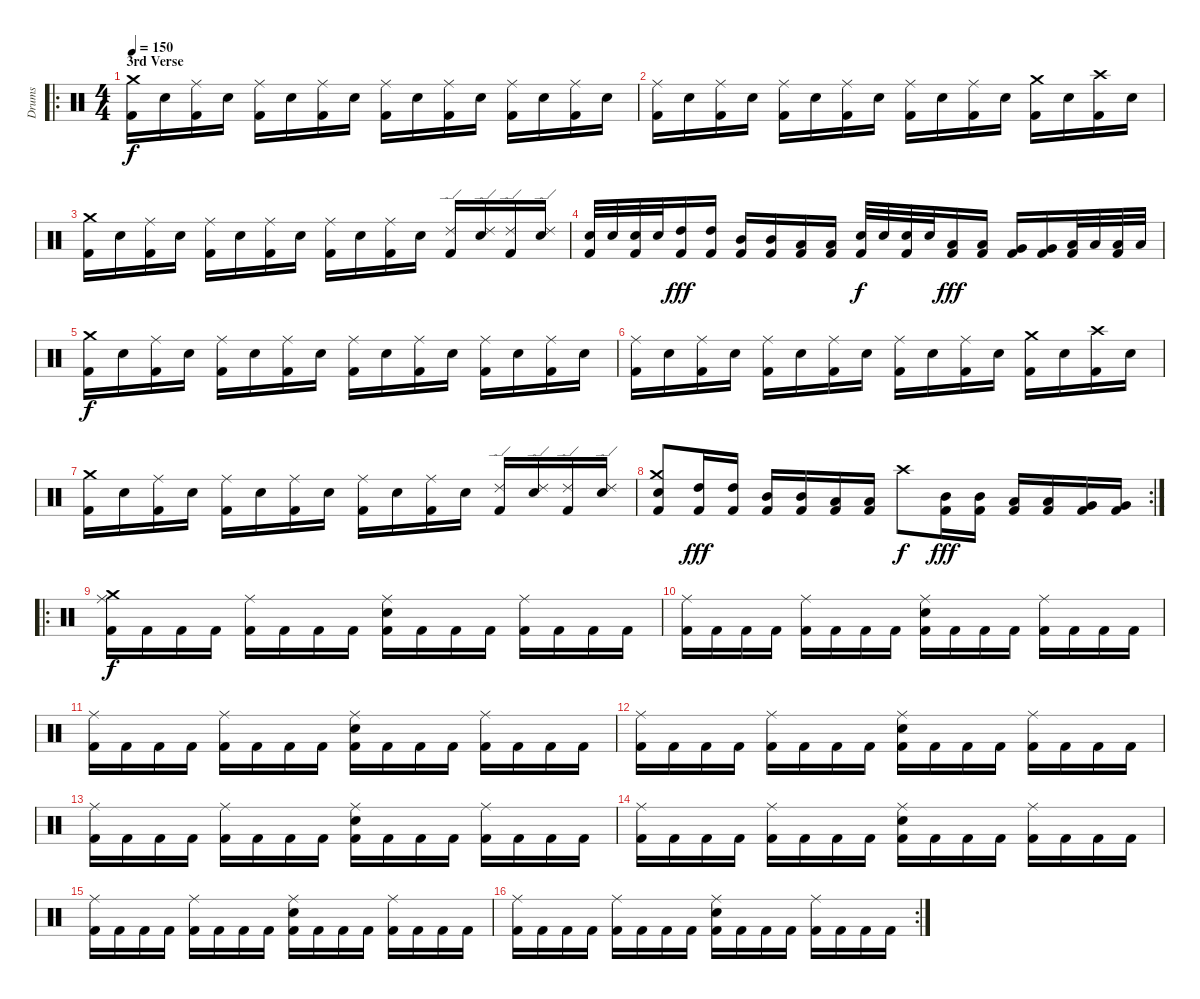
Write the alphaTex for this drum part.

\track ("Drums" "Drums") {instrument percussion}
\staff {score}
\articulation defaults
\ro
\ts (4 4)
\section ("" "3rd Verse")
\tempo 150
\clef neutral
\ks c
("Kick (hit) 2" "Crash medium (hit)").16{dy f} "Electric Snare (hit)".16 ("Kick (hit) 2" "Ride (middle)").16 "Electric Snare (hit)".16 ("Kick (hit) 2" "Ride (middle)").16 "Electric Snare (hit)".16 ("Kick (hit) 2" "Ride (middle)").16 "Electric Snare (hit)".16 ("Kick (hit) 2" "Ride (middle)").16 "Electric Snare (hit)".16 ("Kick (hit) 2" "Ride (middle)").16 "Electric Snare (hit)".16 ("Kick (hit) 2" "Ride (middle)").16 "Electric Snare (hit)".16 ("Kick (hit) 2" "Ride (middle)").16 "Electric Snare (hit)".16 |
("Kick (hit) 2" "Ride (middle)").16 "Electric Snare (hit)".16 ("Kick (hit) 2" "Ride (middle)").16 "Electric Snare (hit)".16 ("Kick (hit) 2" "Ride (middle)").16 "Electric Snare (hit)".16 ("Kick (hit) 2" "Ride (middle)").16 "Electric Snare (hit)".16 ("Kick (hit) 2" "Ride (middle)").16 "Electric Snare (hit)".16 ("Kick (hit) 2" "Ride (middle)").16 "Electric Snare (hit)".16 ("Kick (hit) 2" "Crash medium (hit)").16 "Electric Snare (hit)".16 ("Kick (hit) 2" "Crash high (hit)").16 "Electric Snare (hit)".16 |
("Kick (hit) 2" "Crash medium (hit)").16 "Electric Snare (hit)".16 ("Kick (hit) 2" "Ride (middle)").16 "Electric Snare (hit)".16 ("Kick (hit) 2" "Ride (middle)").16 "Electric Snare (hit)".16 ("Kick (hit) 2" "Ride (middle)").16 "Electric Snare (hit)".16 ("Kick (hit) 2" "Ride (middle)").16 "Electric Snare (hit)".16 ("Kick (hit) 2" "Ride (middle)").16 "Electric Snare (hit)".16 ("Kick (hit) 2" "Ride (edge) 2").16 ("Electric Snare (hit)" "Ride (edge) 2").16 ("Kick (hit) 2" "Ride (edge) 2").16 ("Electric Snare (hit)" "Ride (edge) 2").16 |
("Kick (hit) 2" "Electric Snare (hit)").32 "Electric Snare (hit)".32 ("Kick (hit) 2" "Electric Snare (hit)").32 "Electric Snare (hit)".32 ("Kick (hit) 2" "High Tom (hit)").16{dy fff} ("Kick (hit) 2" "High Tom (hit)").16 ("Kick (hit) 2" "Mid Tom (hit)").16 ("Kick (hit) 2" "Mid Tom (hit)").16 ("Kick (hit) 2" "Low Tom (hit)").16 ("Kick (hit) 2" "Low Tom (hit)").16 ("Kick (hit) 2" "Electric Snare (hit)").32{dy f} "Electric Snare (hit)".32 ("Kick (hit) 2" "Electric Snare (hit)").32 "Electric Snare (hit)".32 ("Kick (hit) 2" "Low Tom (hit)").16{dy fff} ("Kick (hit) 2" "Low Tom (hit)").16 ("Kick (hit) 2" "Very Low Tom (hit)").16 ("Kick (hit) 2" "Very Low Tom (hit)").16 ("Kick (hit) 2" "Low Floor Tom (hit)").32 "Low Floor Tom (hit)".32 ("Kick (hit) 2" "Low Floor Tom (hit)").32 "Low Floor Tom (hit)".32 |
("Kick (hit) 2" "Crash medium (hit)").16{dy f} "Electric Snare (hit)".16 ("Kick (hit) 2" "Ride (middle)").16 "Electric Snare (hit)".16 ("Kick (hit) 2" "Ride (middle)").16 "Electric Snare (hit)".16 ("Kick (hit) 2" "Ride (middle)").16 "Electric Snare (hit)".16 ("Kick (hit) 2" "Ride (middle)").16 "Electric Snare (hit)".16 ("Kick (hit) 2" "Ride (middle)").16 "Electric Snare (hit)".16 ("Kick (hit) 2" "Ride (middle)").16 "Electric Snare (hit)".16 ("Kick (hit) 2" "Ride (middle)").16 "Electric Snare (hit)".16 |
("Kick (hit) 2" "Ride (middle)").16 "Electric Snare (hit)".16 ("Kick (hit) 2" "Ride (middle)").16 "Electric Snare (hit)".16 ("Kick (hit) 2" "Ride (middle)").16 "Electric Snare (hit)".16 ("Kick (hit) 2" "Ride (middle)").16 "Electric Snare (hit)".16 ("Kick (hit) 2" "Ride (middle)").16 "Electric Snare (hit)".16 ("Kick (hit) 2" "Ride (middle)").16 "Electric Snare (hit)".16 ("Kick (hit) 2" "Crash medium (hit)").16 "Electric Snare (hit)".16 ("Kick (hit) 2" "Crash high (hit)").16 "Electric Snare (hit)".16 |
("Kick (hit) 2" "Crash medium (hit)").16 "Electric Snare (hit)".16 ("Kick (hit) 2" "Ride (middle)").16 "Electric Snare (hit)".16 ("Kick (hit) 2" "Ride (middle)").16 "Electric Snare (hit)".16 ("Kick (hit) 2" "Ride (middle)").16 "Electric Snare (hit)".16 ("Kick (hit) 2" "Ride (middle)").16 "Electric Snare (hit)".16 ("Kick (hit) 2" "Ride (middle)").16 "Electric Snare (hit)".16 ("Kick (hit) 2" "Ride (edge) 2").16 ("Electric Snare (hit)" "Ride (edge) 2").16 ("Kick (hit) 2" "Ride (edge) 2").16 ("Electric Snare (hit)" "Ride (edge) 2").16 |
\rc 2
("Kick (hit) 2" "Electric Snare (hit)" "Crash medium (hit)").8 ("Kick (hit) 2" "High Tom (hit)").16{dy fff} ("Kick (hit) 2" "High Tom (hit)").16 ("Kick (hit) 2" "Mid Tom (hit)").16 ("Kick (hit) 2" "Mid Tom (hit)").16 ("Kick (hit) 2" "Low Tom (hit)").16 ("Kick (hit) 2" "Low Tom (hit)").16 "Crash high (hit)".8{dy f} ("Kick (hit) 2" "Mid Tom (hit)").16{dy fff} ("Kick (hit) 2" "Mid Tom (hit)").16 ("Kick (hit) 2" "Low Tom (hit)").16 ("Kick (hit) 2" "Low Tom (hit)").16 ("Kick (hit) 2" "Very Low Tom (hit)").16 ("Kick (hit) 2" "Very Low Tom (hit)").16 |
\ro
("Kick (hit) 2" "Ride (middle)" "Crash medium (hit)").16{dy f} "Kick (hit) 2".16 "Kick (hit) 2".16 "Kick (hit) 2".16 ("Kick (hit) 2" "Ride (middle)").16 "Kick (hit) 2".16 "Kick (hit) 2".16 "Kick (hit) 2".16 ("Kick (hit) 2" "Electric Snare (hit)" "Ride (middle)").16 "Kick (hit) 2".16 "Kick (hit) 2".16 "Kick (hit) 2".16 ("Kick (hit) 2" "Ride (middle)").16 "Kick (hit) 2".16 "Kick (hit) 2".16 "Kick (hit) 2".16 |
("Kick (hit) 2" "Ride (middle)").16 "Kick (hit) 2".16 "Kick (hit) 2".16 "Kick (hit) 2".16 ("Kick (hit) 2" "Ride (middle)").16 "Kick (hit) 2".16 "Kick (hit) 2".16 "Kick (hit) 2".16 ("Kick (hit) 2" "Electric Snare (hit)" "Ride (middle)").16 "Kick (hit) 2".16 "Kick (hit) 2".16 "Kick (hit) 2".16 ("Kick (hit) 2" "Ride (middle)").16 "Kick (hit) 2".16 "Kick (hit) 2".16 "Kick (hit) 2".16 |
("Kick (hit) 2" "Ride (middle)").16 "Kick (hit) 2".16 "Kick (hit) 2".16 "Kick (hit) 2".16 ("Kick (hit) 2" "Ride (middle)").16 "Kick (hit) 2".16 "Kick (hit) 2".16 "Kick (hit) 2".16 ("Kick (hit) 2" "Electric Snare (hit)" "Ride (middle)").16 "Kick (hit) 2".16 "Kick (hit) 2".16 "Kick (hit) 2".16 ("Kick (hit) 2" "Ride (middle)").16 "Kick (hit) 2".16 "Kick (hit) 2".16 "Kick (hit) 2".16 |
("Kick (hit) 2" "Ride (middle)").16 "Kick (hit) 2".16 "Kick (hit) 2".16 "Kick (hit) 2".16 ("Kick (hit) 2" "Ride (middle)").16 "Kick (hit) 2".16 "Kick (hit) 2".16 "Kick (hit) 2".16 ("Kick (hit) 2" "Electric Snare (hit)" "Ride (middle)").16 "Kick (hit) 2".16 "Kick (hit) 2".16 "Kick (hit) 2".16 ("Kick (hit) 2" "Ride (middle)").16 "Kick (hit) 2".16 "Kick (hit) 2".16 "Kick (hit) 2".16 |
("Kick (hit) 2" "Ride (middle)").16 "Kick (hit) 2".16 "Kick (hit) 2".16 "Kick (hit) 2".16 ("Kick (hit) 2" "Ride (middle)").16 "Kick (hit) 2".16 "Kick (hit) 2".16 "Kick (hit) 2".16 ("Kick (hit) 2" "Electric Snare (hit)" "Ride (middle)").16 "Kick (hit) 2".16 "Kick (hit) 2".16 "Kick (hit) 2".16 ("Kick (hit) 2" "Ride (middle)").16 "Kick (hit) 2".16 "Kick (hit) 2".16 "Kick (hit) 2".16 |
("Kick (hit) 2" "Ride (middle)").16 "Kick (hit) 2".16 "Kick (hit) 2".16 "Kick (hit) 2".16 ("Kick (hit) 2" "Ride (middle)").16 "Kick (hit) 2".16 "Kick (hit) 2".16 "Kick (hit) 2".16 ("Kick (hit) 2" "Electric Snare (hit)" "Ride (middle)").16 "Kick (hit) 2".16 "Kick (hit) 2".16 "Kick (hit) 2".16 ("Kick (hit) 2" "Ride (middle)").16 "Kick (hit) 2".16 "Kick (hit) 2".16 "Kick (hit) 2".16 |
("Kick (hit) 2" "Ride (middle)").16 "Kick (hit) 2".16 "Kick (hit) 2".16 "Kick (hit) 2".16 ("Kick (hit) 2" "Ride (middle)").16 "Kick (hit) 2".16 "Kick (hit) 2".16 "Kick (hit) 2".16 ("Kick (hit) 2" "Electric Snare (hit)" "Ride (middle)").16 "Kick (hit) 2".16 "Kick (hit) 2".16 "Kick (hit) 2".16 ("Kick (hit) 2" "Ride (middle)").16 "Kick (hit) 2".16 "Kick (hit) 2".16 "Kick (hit) 2".16 |
\rc 2
("Kick (hit) 2" "Ride (middle)").16 "Kick (hit) 2".16 "Kick (hit) 2".16 "Kick (hit) 2".16 ("Kick (hit) 2" "Ride (middle)").16 "Kick (hit) 2".16 "Kick (hit) 2".16 "Kick (hit) 2".16 ("Kick (hit) 2" "Electric Snare (hit)" "Ride (middle)").16 "Kick (hit) 2".16 "Kick (hit) 2".16 "Kick (hit) 2".16 ("Kick (hit) 2" "Ride (middle)").16 "Kick (hit) 2".16 "Kick (hit) 2".16 "Kick (hit) 2".16
